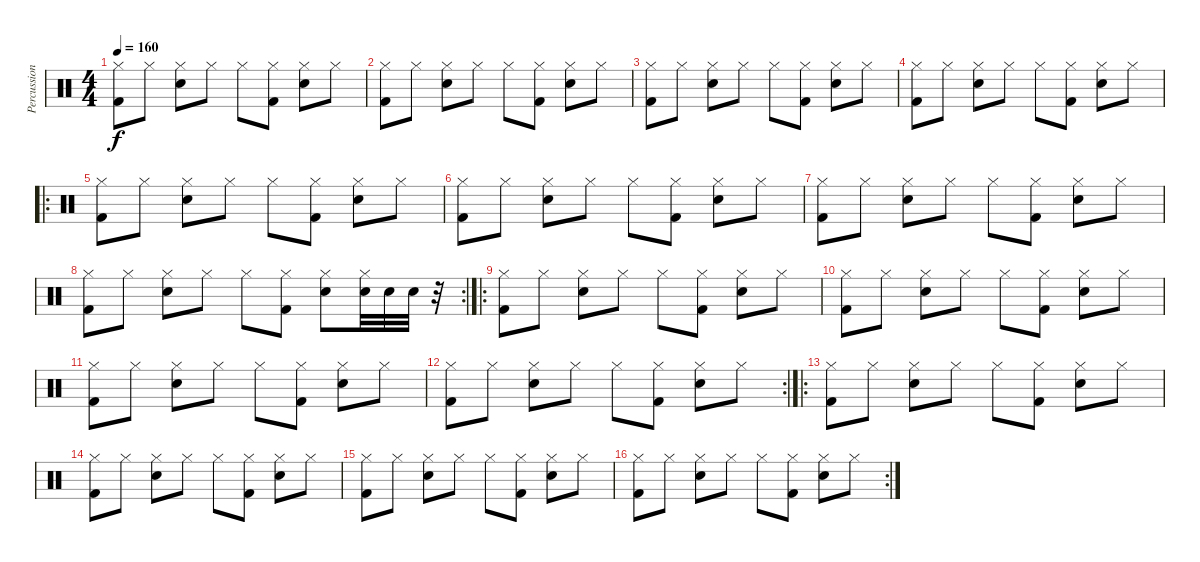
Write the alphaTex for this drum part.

\track ("Percussions" "Percussion") {instrument percussion}
\staff {score}
\articulation defaults
\ts (4 4)
\tempo 160
\clef neutral
\ks c
("Hi-Hat (closed)" "Kick (hit) 2").8{dy f} "Hi-Hat (closed)".8 ("Hi-Hat (closed)" "Snare (hit) 2").8 "Hi-Hat (closed)".8 "Hi-Hat (closed)".8 ("Hi-Hat (closed)" "Kick (hit) 2").8 ("Hi-Hat (closed)" "Snare (hit) 2").8 "Hi-Hat (closed)".8 |
("Hi-Hat (closed)" "Kick (hit) 2").8 "Hi-Hat (closed)".8 ("Hi-Hat (closed)" "Snare (hit) 2").8 "Hi-Hat (closed)".8 "Hi-Hat (closed)".8 ("Hi-Hat (closed)" "Kick (hit) 2").8 ("Hi-Hat (closed)" "Snare (hit) 2").8 "Hi-Hat (closed)".8 |
("Hi-Hat (closed)" "Kick (hit) 2").8 "Hi-Hat (closed)".8 ("Hi-Hat (closed)" "Snare (hit) 2").8 "Hi-Hat (closed)".8 "Hi-Hat (closed)".8 ("Hi-Hat (closed)" "Kick (hit) 2").8 ("Hi-Hat (closed)" "Snare (hit) 2").8 "Hi-Hat (closed)".8 |
("Hi-Hat (closed)" "Kick (hit) 2").8 "Hi-Hat (closed)".8 ("Hi-Hat (closed)" "Snare (hit) 2").8 "Hi-Hat (closed)".8 "Hi-Hat (closed)".8 ("Hi-Hat (closed)" "Kick (hit) 2").8 ("Hi-Hat (closed)" "Snare (hit) 2").8 "Hi-Hat (closed)".8 |
\ro
("Hi-Hat (closed)" "Kick (hit) 2").8 "Hi-Hat (closed)".8 ("Hi-Hat (closed)" "Snare (hit) 2").8 "Hi-Hat (closed)".8 "Hi-Hat (closed)".8 ("Hi-Hat (closed)" "Kick (hit) 2").8 ("Hi-Hat (closed)" "Snare (hit) 2").8 "Hi-Hat (closed)".8 |
("Hi-Hat (closed)" "Kick (hit) 2").8 "Hi-Hat (closed)".8 ("Hi-Hat (closed)" "Snare (hit) 2").8 "Hi-Hat (closed)".8 "Hi-Hat (closed)".8 ("Hi-Hat (closed)" "Kick (hit) 2").8 ("Hi-Hat (closed)" "Snare (hit) 2").8 "Hi-Hat (closed)".8 |
("Hi-Hat (closed)" "Kick (hit) 2").8 "Hi-Hat (closed)".8 ("Hi-Hat (closed)" "Snare (hit) 2").8 "Hi-Hat (closed)".8 "Hi-Hat (closed)".8 ("Hi-Hat (closed)" "Kick (hit) 2").8 ("Hi-Hat (closed)" "Snare (hit) 2").8 "Hi-Hat (closed)".8 |
\rc 2
("Hi-Hat (closed)" "Kick (hit) 2").8 "Hi-Hat (closed)".8 ("Hi-Hat (closed)" "Snare (hit) 2").8 "Hi-Hat (closed)".8 "Hi-Hat (closed)".8 ("Hi-Hat (closed)" "Kick (hit) 2").8 ("Hi-Hat (closed)" "Snare (hit) 2").8 ("Hi-Hat (closed)" "Snare (hit) 2").32 "Snare (hit) 2".32 "Snare (hit) 2".32 r.32 |
\ro
("Hi-Hat (closed)" "Kick (hit) 2").8 "Hi-Hat (closed)".8 ("Hi-Hat (closed)" "Snare (hit) 2").8 "Hi-Hat (closed)".8 "Hi-Hat (closed)".8 ("Hi-Hat (closed)" "Kick (hit) 2").8 ("Hi-Hat (closed)" "Snare (hit) 2").8 "Hi-Hat (closed)".8 |
("Hi-Hat (closed)" "Kick (hit) 2").8 "Hi-Hat (closed)".8 ("Hi-Hat (closed)" "Snare (hit) 2").8 "Hi-Hat (closed)".8 "Hi-Hat (closed)".8 ("Hi-Hat (closed)" "Kick (hit) 2").8 ("Hi-Hat (closed)" "Snare (hit) 2").8 "Hi-Hat (closed)".8 |
("Hi-Hat (closed)" "Kick (hit) 2").8 "Hi-Hat (closed)".8 ("Hi-Hat (closed)" "Snare (hit) 2").8 "Hi-Hat (closed)".8 "Hi-Hat (closed)".8 ("Hi-Hat (closed)" "Kick (hit) 2").8 ("Hi-Hat (closed)" "Snare (hit) 2").8 "Hi-Hat (closed)".8 |
\rc 2
("Hi-Hat (closed)" "Kick (hit) 2").8 "Hi-Hat (closed)".8 ("Hi-Hat (closed)" "Snare (hit) 2").8 "Hi-Hat (closed)".8 "Hi-Hat (closed)".8 ("Hi-Hat (closed)" "Kick (hit) 2").8 ("Hi-Hat (closed)" "Snare (hit) 2").8 "Hi-Hat (closed)".8 |
\ro
("Hi-Hat (closed)" "Kick (hit) 2").8 "Hi-Hat (closed)".8 ("Hi-Hat (closed)" "Snare (hit) 2").8 "Hi-Hat (closed)".8 "Hi-Hat (closed)".8 ("Hi-Hat (closed)" "Kick (hit) 2").8 ("Hi-Hat (closed)" "Snare (hit) 2").8 "Hi-Hat (closed)".8 |
("Hi-Hat (closed)" "Kick (hit) 2").8 "Hi-Hat (closed)".8 ("Hi-Hat (closed)" "Snare (hit) 2").8 "Hi-Hat (closed)".8 "Hi-Hat (closed)".8 ("Hi-Hat (closed)" "Kick (hit) 2").8 ("Hi-Hat (closed)" "Snare (hit) 2").8 "Hi-Hat (closed)".8 |
("Hi-Hat (closed)" "Kick (hit) 2").8 "Hi-Hat (closed)".8 ("Hi-Hat (closed)" "Snare (hit) 2").8 "Hi-Hat (closed)".8 "Hi-Hat (closed)".8 ("Hi-Hat (closed)" "Kick (hit) 2").8 ("Hi-Hat (closed)" "Snare (hit) 2").8 "Hi-Hat (closed)".8 |
\rc 2
("Hi-Hat (closed)" "Kick (hit) 2").8 "Hi-Hat (closed)".8 ("Hi-Hat (closed)" "Snare (hit) 2").8 "Hi-Hat (closed)".8 "Hi-Hat (closed)".8 ("Hi-Hat (closed)" "Kick (hit) 2").8 ("Hi-Hat (closed)" "Snare (hit) 2").8 "Hi-Hat (closed)".8
